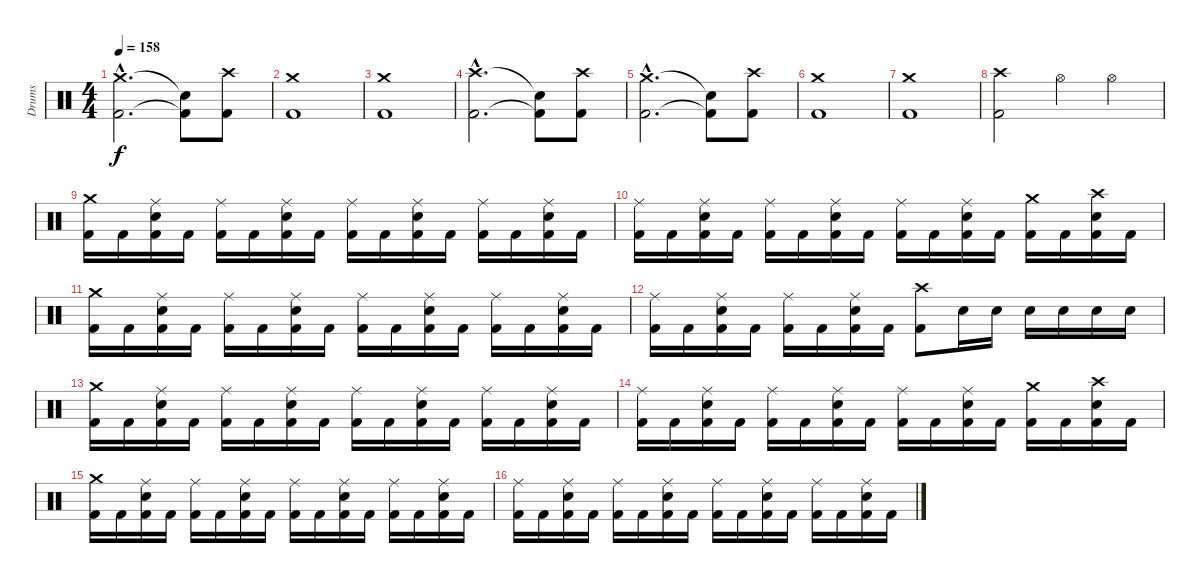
\track ("Drums" "Drums") {instrument percussion}
\staff {score}
\articulation defaults
\ts (4 4)
\tempo 158
\clef neutral
\ks c
("Crash medium (hit)"{hac} "Kick (hit) 2"{hac}).2{d dy f} ("Snare (hit)"{t} "Kick (hit) 2"{t}).8 ("Crash high (hit)" "Kick (hit) 2").8 |
("Crash medium (hit)" "Kick (hit) 2").1 |
("Crash medium (hit)" "Kick (hit) 2").1 |
("Crash high (hit)"{hac} "Kick (hit) 2"{hac}).2{d} ("Snare (hit)"{t} "Kick (hit) 2"{t}).8 ("Crash high (hit)" "Kick (hit) 2").8 |
("Crash medium (hit)"{hac} "Kick (hit) 2"{hac}).2{d} ("Snare (hit)"{t} "Kick (hit) 2"{t}).8 ("Crash high (hit)" "Kick (hit) 2").8 |
("Crash medium (hit)" "Kick (hit) 2").1 |
("Crash medium (hit)" "Kick (hit) 2").1 |
("Crash high (hit)" "Kick (hit) 2").2 "Hi-Hat (open)".4 "Hi-Hat (open)".4 |
("Crash medium (hit)" "Kick (hit) 2").16 "Kick (hit) 2".16 ("Ride (middle)" "Electric Snare (hit)" "Kick (hit) 2").16 "Kick (hit) 2".16 ("Ride (middle)" "Kick (hit) 2").16 "Kick (hit) 2".16 ("Ride (middle)" "Electric Snare (hit)" "Kick (hit) 2").16 "Kick (hit) 2".16 ("Ride (middle)" "Kick (hit) 2").16 "Kick (hit) 2".16 ("Ride (middle)" "Electric Snare (hit)" "Kick (hit) 2").16 "Kick (hit) 2".16 ("Ride (middle)" "Kick (hit) 2").16 "Kick (hit) 2".16 ("Ride (middle)" "Electric Snare (hit)" "Kick (hit) 2").16 "Kick (hit) 2".16 |
("Ride (middle)" "Kick (hit) 2").16 "Kick (hit) 2".16 ("Ride (middle)" "Electric Snare (hit)" "Kick (hit) 2").16 "Kick (hit) 2".16 ("Ride (middle)" "Kick (hit) 2").16 "Kick (hit) 2".16 ("Ride (middle)" "Electric Snare (hit)" "Kick (hit) 2").16 "Kick (hit) 2".16 ("Ride (middle)" "Kick (hit) 2").16 "Kick (hit) 2".16 ("Ride (middle)" "Electric Snare (hit)" "Kick (hit) 2").16 "Kick (hit) 2".16 ("Crash medium (hit)" "Kick (hit) 2").16 "Kick (hit) 2".16 ("Crash high (hit)" "Electric Snare (hit)" "Kick (hit) 2").16 "Kick (hit) 2".16 |
("Crash medium (hit)" "Kick (hit) 2").16 "Kick (hit) 2".16 ("Ride (middle)" "Electric Snare (hit)" "Kick (hit) 2").16 "Kick (hit) 2".16 ("Ride (middle)" "Kick (hit) 2").16 "Kick (hit) 2".16 ("Ride (middle)" "Electric Snare (hit)" "Kick (hit) 2").16 "Kick (hit) 2".16 ("Ride (middle)" "Kick (hit) 2").16 "Kick (hit) 2".16 ("Ride (middle)" "Electric Snare (hit)" "Kick (hit) 2").16 "Kick (hit) 2".16 ("Ride (middle)" "Kick (hit) 2").16 "Kick (hit) 2".16 ("Ride (middle)" "Electric Snare (hit)" "Kick (hit) 2").16 "Kick (hit) 2".16 |
("Ride (middle)" "Kick (hit) 2").16 "Kick (hit) 2".16 ("Ride (middle)" "Electric Snare (hit)" "Kick (hit) 2").16 "Kick (hit) 2".16 ("Ride (middle)" "Kick (hit) 2").16 "Kick (hit) 2".16 ("Ride (middle)" "Electric Snare (hit)" "Kick (hit) 2").16 "Kick (hit) 2".16 ("Crash high (hit)" "Kick (hit) 2").8 "Electric Snare (hit)".16 "Electric Snare (hit)".16 "Electric Snare (hit)".16 "Electric Snare (hit)".16 "Electric Snare (hit)".16 "Electric Snare (hit)".16 |
("Crash medium (hit)" "Kick (hit) 2").16 "Kick (hit) 2".16 ("Ride (middle)" "Electric Snare (hit)" "Kick (hit) 2").16 "Kick (hit) 2".16 ("Ride (middle)" "Kick (hit) 2").16 "Kick (hit) 2".16 ("Ride (middle)" "Electric Snare (hit)" "Kick (hit) 2").16 "Kick (hit) 2".16 ("Ride (middle)" "Kick (hit) 2").16 "Kick (hit) 2".16 ("Ride (middle)" "Electric Snare (hit)" "Kick (hit) 2").16 "Kick (hit) 2".16 ("Ride (middle)" "Kick (hit) 2").16 "Kick (hit) 2".16 ("Ride (middle)" "Electric Snare (hit)" "Kick (hit) 2").16 "Kick (hit) 2".16 |
("Ride (middle)" "Kick (hit) 2").16 "Kick (hit) 2".16 ("Ride (middle)" "Electric Snare (hit)" "Kick (hit) 2").16 "Kick (hit) 2".16 ("Ride (middle)" "Kick (hit) 2").16 "Kick (hit) 2".16 ("Ride (middle)" "Electric Snare (hit)" "Kick (hit) 2").16 "Kick (hit) 2".16 ("Ride (middle)" "Kick (hit) 2").16 "Kick (hit) 2".16 ("Ride (middle)" "Electric Snare (hit)" "Kick (hit) 2").16 "Kick (hit) 2".16 ("Crash medium (hit)" "Kick (hit) 2").16 "Kick (hit) 2".16 ("Crash high (hit)" "Electric Snare (hit)" "Kick (hit) 2").16 "Kick (hit) 2".16 |
("Crash medium (hit)" "Kick (hit) 2").16 "Kick (hit) 2".16 ("Ride (middle)" "Electric Snare (hit)" "Kick (hit) 2").16 "Kick (hit) 2".16 ("Ride (middle)" "Kick (hit) 2").16 "Kick (hit) 2".16 ("Ride (middle)" "Electric Snare (hit)" "Kick (hit) 2").16 "Kick (hit) 2".16 ("Ride (middle)" "Kick (hit) 2").16 "Kick (hit) 2".16 ("Ride (middle)" "Electric Snare (hit)" "Kick (hit) 2").16 "Kick (hit) 2".16 ("Ride (middle)" "Kick (hit) 2").16 "Kick (hit) 2".16 ("Ride (middle)" "Electric Snare (hit)" "Kick (hit) 2").16 "Kick (hit) 2".16 |
("Ride (middle)" "Kick (hit) 2").16 "Kick (hit) 2".16 ("Ride (middle)" "Electric Snare (hit)" "Kick (hit) 2").16 "Kick (hit) 2".16 ("Ride (middle)" "Kick (hit) 2").16 "Kick (hit) 2".16 ("Ride (middle)" "Electric Snare (hit)" "Kick (hit) 2").16 "Kick (hit) 2".16 ("Ride (middle)" "Kick (hit) 2").16 "Kick (hit) 2".16 ("Ride (middle)" "Electric Snare (hit)" "Kick (hit) 2").16 "Kick (hit) 2".16 ("Ride (middle)" "Kick (hit) 2").16 "Kick (hit) 2".16 ("Ride (middle)" "Electric Snare (hit)" "Kick (hit) 2").16 "Kick (hit) 2".16
